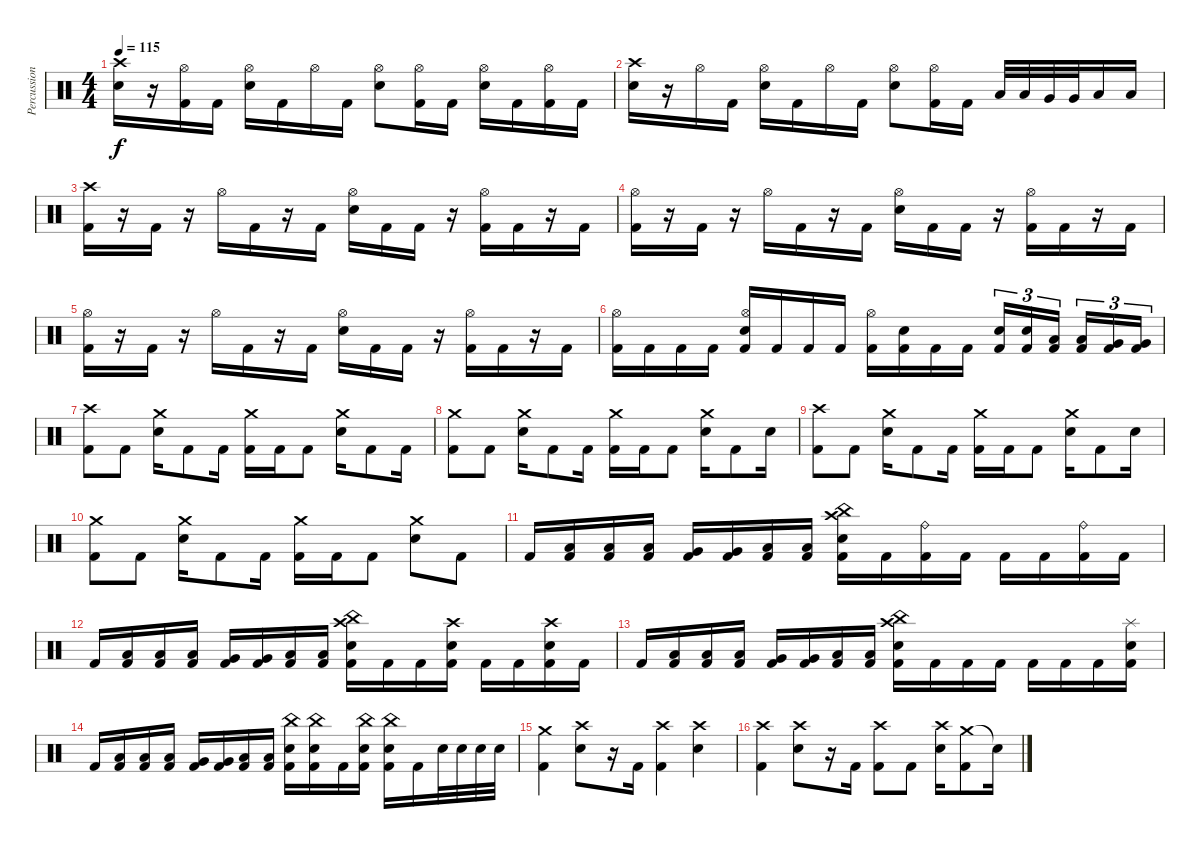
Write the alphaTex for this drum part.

\track ("Percussions" "Percussion") {instrument percussion}
\staff {score}
\articulation defaults
\ts (4 4)
\tempo 115
\clef neutral
\ks c
("Crash high (hit)" "Electric Snare (hit)").16{dy f} r.16 ("Hi-Hat (open)" "Kick (hit) 2").16 "Kick (hit) 2".16 ("Hi-Hat (open)" "Electric Snare (hit)").16 "Kick (hit) 2".16 "Hi-Hat (open)".16 "Kick (hit) 2".16 ("Hi-Hat (open)" "Electric Snare (hit)").8 ("Hi-Hat (open)" "Kick (hit) 2").16 "Kick (hit) 2".16 ("Hi-Hat (open)" "Electric Snare (hit)").16 "Kick (hit) 2".16 ("Hi-Hat (open)" "Kick (hit) 2").16 "Kick (hit) 2".16 |
("Crash high (hit)" "Electric Snare (hit)").16 r.16 "Hi-Hat (open)".16 "Kick (hit) 2".16 ("Hi-Hat (open)" "Electric Snare (hit)").16 "Kick (hit) 2".16 "Hi-Hat (open)".16 "Kick (hit) 2".16 ("Hi-Hat (open)" "Electric Snare (hit)").8 ("Hi-Hat (open)" "Kick (hit) 2").16 "Kick (hit) 2".16 "Low Tom (hit)".32 "Low Tom (hit)".32 "Very Low Tom (hit)".32 "Very Low Tom (hit)".32 "Low Floor Tom (hit)".16 "Low Floor Tom (hit)".16 |
("Crash high (hit)" "Kick (hit) 2").16 r.16 "Kick (hit) 2".16 r.16 "Hi-Hat (open)".16 "Kick (hit) 2".16 r.16 "Kick (hit) 2".16 ("Hi-Hat (open)" "Electric Snare (hit)").16 "Kick (hit) 2".16 "Kick (hit) 2".16 r.16 ("Hi-Hat (open)" "Kick (hit) 2").16 "Kick (hit) 2".16 r.16 "Kick (hit) 2".16 |
("Hi-Hat (open)" "Kick (hit) 2").16 r.16 "Kick (hit) 2".16 r.16 "Hi-Hat (open)".16 "Kick (hit) 2".16 r.16 "Kick (hit) 2".16 ("Hi-Hat (open)" "Electric Snare (hit)").16 "Kick (hit) 2".16 "Kick (hit) 2".16 r.16 ("Hi-Hat (open)" "Kick (hit) 2").16 "Kick (hit) 2".16 r.16 "Kick (hit) 2".16 |
("Hi-Hat (open)" "Kick (hit) 2").16 r.16 "Kick (hit) 2".16 r.16 "Hi-Hat (open)".16 "Kick (hit) 2".16 r.16 "Kick (hit) 2".16 ("Hi-Hat (open)" "Electric Snare (hit)").16 "Kick (hit) 2".16 "Kick (hit) 2".16 r.16 ("Hi-Hat (open)" "Kick (hit) 2").16 "Kick (hit) 2".16 r.16 "Kick (hit) 2".16 |
("Hi-Hat (open)" "Kick (hit) 2").16 "Kick (hit) 2".16 "Kick (hit) 2".16 "Kick (hit) 2".16 ("Hi-Hat (open)" "Electric Snare (hit)" "Kick (hit) 2").16 "Kick (hit) 2".16 "Kick (hit) 2".16 "Kick (hit) 2".16 ("Hi-Hat (open)" "Kick (hit) 2").16 ("Electric Snare (hit)" "Kick (hit) 2").16 "Kick (hit) 2".16 "Kick (hit) 2".16 ("Electric Snare (hit)" "Kick (hit) 2").16{tu (3 2)} ("Electric Snare (hit)" "Kick (hit) 2").16{tu (3 2)} ("Low Tom (hit)" "Kick (hit) 2").16{tu (3 2)} ("Low Tom (hit)" "Kick (hit) 2").16{tu (3 2)} ("Very Low Tom (hit)" "Kick (hit) 2").16{tu (3 2)} ("Very Low Tom (hit)" "Kick (hit) 2").16{tu (3 2)} |
("Crash high (hit)" "Kick (hit) 2").8 "Kick (hit) 2".8 ("Crash medium (hit)" "Electric Snare (hit)").16 "Kick (hit) 2".8 "Kick (hit) 2".16 ("Crash medium (hit)" "Kick (hit) 2").16 "Kick (hit) 2".16 "Kick (hit) 2".8 ("Crash medium (hit)" "Electric Snare (hit)").16 "Kick (hit) 2".8 "Kick (hit) 2".16 |
("Crash medium (hit)" "Kick (hit) 2").8 "Kick (hit) 2".8 ("Crash medium (hit)" "Electric Snare (hit)").16 "Kick (hit) 2".8 "Kick (hit) 2".16 ("Crash medium (hit)" "Kick (hit) 2").16 "Kick (hit) 2".16 "Kick (hit) 2".8 ("Crash medium (hit)" "Electric Snare (hit)").16 "Kick (hit) 2".8 "Electric Snare (hit)".16 |
("Crash high (hit)" "Kick (hit) 2").8 "Kick (hit) 2".8 ("Crash medium (hit)" "Electric Snare (hit)").16 "Kick (hit) 2".8 "Kick (hit) 2".16 ("Crash medium (hit)" "Kick (hit) 2").16 "Kick (hit) 2".16 "Kick (hit) 2".8 ("Crash medium (hit)" "Electric Snare (hit)").16 "Kick (hit) 2".8 "Electric Snare (hit)".16 |
("Crash medium (hit)" "Kick (hit) 2").8 "Kick (hit) 2".8 ("Crash medium (hit)" "Electric Snare (hit)").16 "Kick (hit) 2".8 "Kick (hit) 2".16 ("Crash medium (hit)" "Kick (hit) 2").16 "Kick (hit) 2".16 "Kick (hit) 2".8 ("Crash medium (hit)" "Electric Snare (hit)").8 "Kick (hit) 2".8 |
"Kick (hit) 2".16 ("Low Tom (hit)" "Kick (hit) 2").16 ("Low Tom (hit)" "Kick (hit) 2").16 ("Low Tom (hit)" "Kick (hit) 2").16 ("Very Low Tom (hit)" "Kick (hit) 2").16 ("Very Low Tom (hit)" "Kick (hit) 2").16 ("Low Floor Tom (hit)" "Kick (hit) 2").16 ("Low Floor Tom (hit)" "Kick (hit) 2").16 ("China (hit)" "Crash high (hit)" "Electric Snare (hit)" "Kick (hit) 2").16 "Kick (hit) 2".16 ("Ride (bell)" "Kick (hit) 2").16 "Kick (hit) 2".16 "Kick (hit) 2".16 "Kick (hit) 2".16 ("Ride (bell)" "Kick (hit) 2").16 "Kick (hit) 2".16 |
"Kick (hit) 2".16 ("Low Tom (hit)" "Kick (hit) 2").16 ("Low Tom (hit)" "Kick (hit) 2").16 ("Low Tom (hit)" "Kick (hit) 2").16 ("Very Low Tom (hit)" "Kick (hit) 2").16 ("Very Low Tom (hit)" "Kick (hit) 2").16 ("Low Floor Tom (hit)" "Kick (hit) 2").16 ("Low Floor Tom (hit)" "Kick (hit) 2").16 ("China (hit)" "Crash high (hit)" "Electric Snare (hit)" "Kick (hit) 2").16 "Kick (hit) 2".16 "Kick (hit) 2".16 ("Crash high (hit)" "Electric Snare (hit)" "Kick (hit) 2").16 "Kick (hit) 2".16 "Kick (hit) 2".16 ("Crash high (hit)" "Electric Snare (hit)" "Kick (hit) 2").16 "Kick (hit) 2".16 |
"Kick (hit) 2".16 ("Low Tom (hit)" "Kick (hit) 2").16 ("Low Tom (hit)" "Kick (hit) 2").16 ("Low Tom (hit)" "Kick (hit) 2").16 ("Very Low Tom (hit)" "Kick (hit) 2").16 ("Very Low Tom (hit)" "Kick (hit) 2").16 ("Low Floor Tom (hit)" "Kick (hit) 2").16 ("Low Floor Tom (hit)" "Kick (hit) 2").16 ("China (hit)" "Crash high (hit)" "Electric Snare (hit)" "Kick (hit) 2").16 "Kick (hit) 2".16 "Kick (hit) 2".16 "Kick (hit) 2".16 "Kick (hit) 2".16 "Kick (hit) 2".16 "Kick (hit) 2".16 ("Splash (hit)" "Electric Snare (hit)" "Kick (hit) 2").16 |
"Kick (hit) 2".16 ("Low Tom (hit)" "Kick (hit) 2").16 ("Low Tom (hit)" "Kick (hit) 2").16 ("Low Tom (hit)" "Kick (hit) 2").16 ("Very Low Tom (hit)" "Kick (hit) 2").16 ("Very Low Tom (hit)" "Kick (hit) 2").16 ("Low Floor Tom (hit)" "Kick (hit) 2").16 ("Low Floor Tom (hit)" "Kick (hit) 2").16 ("China (hit)" "Electric Snare (hit)" "Kick (hit) 2").16 ("China (hit)" "Electric Snare (hit)" "Kick (hit) 2").16 "Kick (hit) 2".16 ("China (hit)" "Electric Snare (hit)" "Kick (hit) 2").16 ("China (hit)" "Electric Snare (hit)" "Kick (hit) 2").16 "Kick (hit) 2".16 "Electric Snare (hit)".32 "Electric Snare (hit)".32 "Electric Snare (hit)".32 "Electric Snare (hit)".32 |
("Crash medium (hit)" "Kick (hit) 2").4 ("Crash high (hit)" "Electric Snare (hit)").8 r.16 "Kick (hit) 2".16 ("Crash high (hit)" "Kick (hit) 2").4 ("Crash high (hit)" "Electric Snare (hit)").4 |
("Crash high (hit)" "Kick (hit) 2").4 ("Crash high (hit)" "Electric Snare (hit)").8 r.16 "Kick (hit) 2".16 ("Crash high (hit)" "Kick (hit) 2").8 "Kick (hit) 2".8 ("Crash high (hit)" "Electric Snare (hit)").16 ("Crash medium (hit)" "Kick (hit) 2").8 "Snare (hit)"{t}.16
